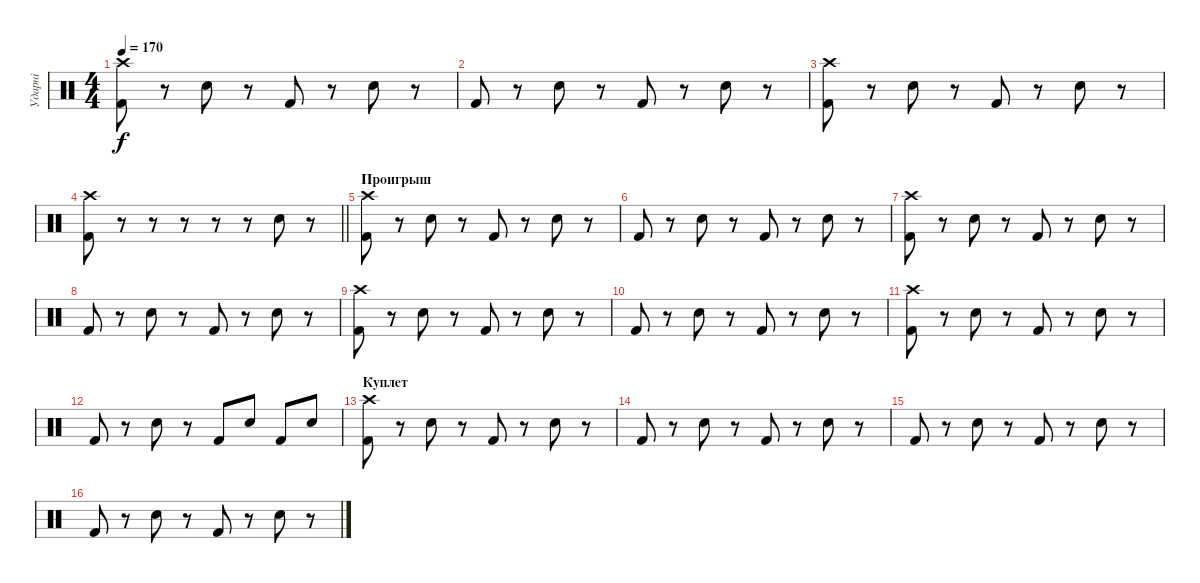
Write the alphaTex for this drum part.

\track ("Ударні" "Ударні") {instrument percussion}
\staff {score}
\articulation defaults
\ts (4 4)
\tempo 170
\clef neutral
\ks c
("Kick (hit) 2" "Crash high (hit)").8{dy f} r.8 "Electric Snare (hit)".8 r.8 "Kick (hit) 2".8 r.8 "Electric Snare (hit)".8 r.8 |
"Kick (hit) 2".8 r.8 "Electric Snare (hit)".8 r.8 "Kick (hit) 2".8 r.8 "Electric Snare (hit)".8 r.8 |
("Kick (hit) 2" "Crash high (hit)").8 r.8 "Electric Snare (hit)".8 r.8 "Kick (hit) 2".8 r.8 "Electric Snare (hit)".8 r.8 |
\barLineRight lightlight
("Kick (hit) 2" "Crash high (hit)").8 r.8 r.8 r.8 r.8 r.8 "Snare (hit) 2".8 r.8 |
\section ("" "Проигрыш")
("Kick (hit) 2" "Crash high (hit)").8 r.8 "Electric Snare (hit)".8 r.8 "Kick (hit) 2".8 r.8 "Electric Snare (hit)".8 r.8 |
"Kick (hit) 2".8 r.8 "Electric Snare (hit)".8 r.8 "Kick (hit) 2".8 r.8 "Electric Snare (hit)".8 r.8 |
("Kick (hit) 2" "Crash high (hit)").8 r.8 "Electric Snare (hit)".8 r.8 "Kick (hit) 2".8 r.8 "Electric Snare (hit)".8 r.8 |
"Kick (hit) 2".8 r.8 "Electric Snare (hit)".8 r.8 "Kick (hit) 2".8 r.8 "Electric Snare (hit)".8 r.8 |
("Kick (hit) 2" "Crash high (hit)").8 r.8 "Electric Snare (hit)".8 r.8 "Kick (hit) 2".8 r.8 "Electric Snare (hit)".8 r.8 |
"Kick (hit) 2".8 r.8 "Electric Snare (hit)".8 r.8 "Kick (hit) 2".8 r.8 "Electric Snare (hit)".8 r.8 |
("Kick (hit) 2" "Crash high (hit)").8 r.8 "Electric Snare (hit)".8 r.8 "Kick (hit) 2".8 r.8 "Electric Snare (hit)".8 r.8 |
"Kick (hit) 2".8 r.8 "Electric Snare (hit)".8 r.8 "Kick (hit) 2".8 "Electric Snare (hit)".8 "Kick (hit) 2".8 "Electric Snare (hit)".8 |
\section ("" "Куплет")
("Kick (hit) 2" "Crash high (hit)").8 r.8 "Electric Snare (hit)".8 r.8 "Kick (hit) 2".8 r.8 "Electric Snare (hit)".8 r.8 |
"Kick (hit) 2".8 r.8 "Electric Snare (hit)".8 r.8 "Kick (hit) 2".8 r.8 "Electric Snare (hit)".8 r.8 |
"Kick (hit) 2".8 r.8 "Electric Snare (hit)".8 r.8 "Kick (hit) 2".8 r.8 "Electric Snare (hit)".8 r.8 |
"Kick (hit) 2".8 r.8 "Electric Snare (hit)".8 r.8 "Kick (hit) 2".8 r.8 "Electric Snare (hit)".8 r.8
